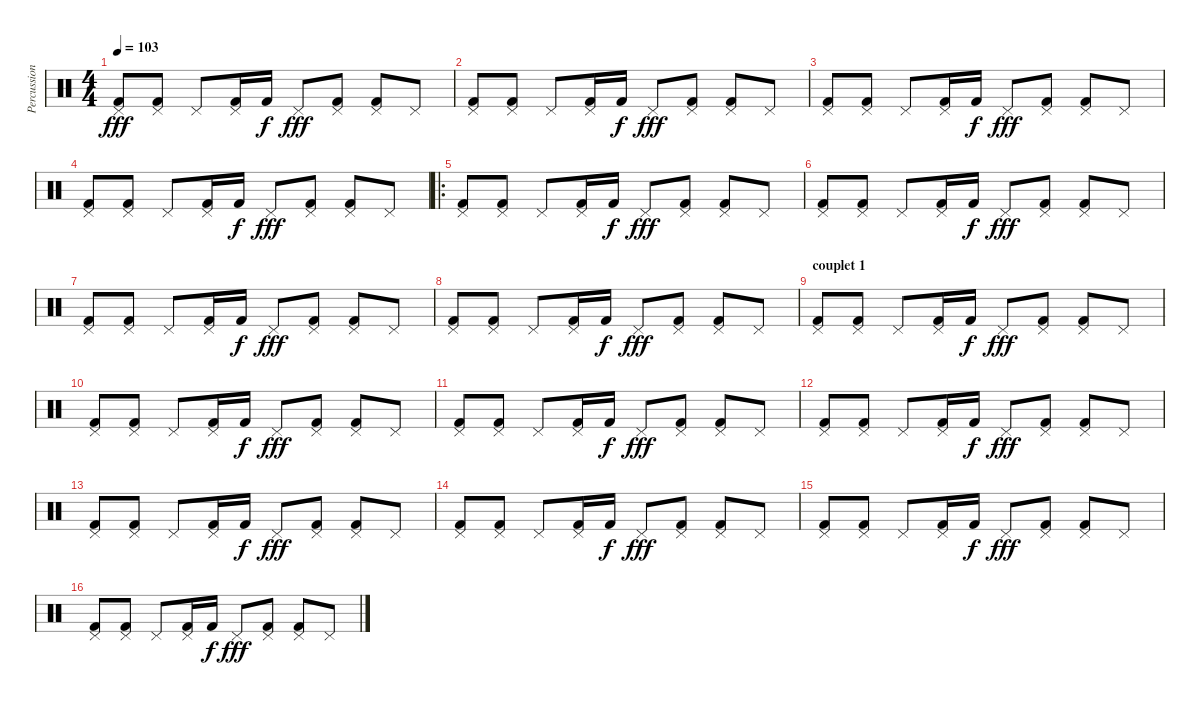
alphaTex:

\track ("Percussions" "Percussion") {instrument percussion}
\staff {score}
\articulation defaults
\ts (4 4)
\tempo 103
\clef neutral
\ks c
("Pedal Hi-Hat (hit)" "Kick (hit) 2").8{dy fff} ("Pedal Hi-Hat (hit)" "Kick (hit) 2").8 "Pedal Hi-Hat (hit)".8 ("Pedal Hi-Hat (hit)" "Kick (hit) 2").16 "Kick (hit) 2".16{dy f} "Pedal Hi-Hat (hit)".8{dy fff} ("Pedal Hi-Hat (hit)" "Kick (hit) 2").8 ("Pedal Hi-Hat (hit)" "Kick (hit) 2").8 "Pedal Hi-Hat (hit)".8 |
("Pedal Hi-Hat (hit)" "Kick (hit) 2").8 ("Pedal Hi-Hat (hit)" "Kick (hit) 2").8 "Pedal Hi-Hat (hit)".8 ("Pedal Hi-Hat (hit)" "Kick (hit) 2").16 "Kick (hit) 2".16{dy f} "Pedal Hi-Hat (hit)".8{dy fff} ("Pedal Hi-Hat (hit)" "Kick (hit) 2").8 ("Pedal Hi-Hat (hit)" "Kick (hit) 2").8 "Pedal Hi-Hat (hit)".8 |
("Pedal Hi-Hat (hit)" "Kick (hit) 2").8 ("Pedal Hi-Hat (hit)" "Kick (hit) 2").8 "Pedal Hi-Hat (hit)".8 ("Pedal Hi-Hat (hit)" "Kick (hit) 2").16 "Kick (hit) 2".16{dy f} "Pedal Hi-Hat (hit)".8{dy fff} ("Pedal Hi-Hat (hit)" "Kick (hit) 2").8 ("Pedal Hi-Hat (hit)" "Kick (hit) 2").8 "Pedal Hi-Hat (hit)".8 |
("Pedal Hi-Hat (hit)" "Kick (hit) 2").8 ("Pedal Hi-Hat (hit)" "Kick (hit) 2").8 "Pedal Hi-Hat (hit)".8 ("Pedal Hi-Hat (hit)" "Kick (hit) 2").16 "Kick (hit) 2".16{dy f} "Pedal Hi-Hat (hit)".8{dy fff} ("Pedal Hi-Hat (hit)" "Kick (hit) 2").8 ("Pedal Hi-Hat (hit)" "Kick (hit) 2").8 "Pedal Hi-Hat (hit)".8 |
\ro
("Pedal Hi-Hat (hit)" "Kick (hit) 2").8 ("Pedal Hi-Hat (hit)" "Kick (hit) 2").8 "Pedal Hi-Hat (hit)".8 ("Pedal Hi-Hat (hit)" "Kick (hit) 2").16 "Kick (hit) 2".16{dy f} "Pedal Hi-Hat (hit)".8{dy fff} ("Pedal Hi-Hat (hit)" "Kick (hit) 2").8 ("Pedal Hi-Hat (hit)" "Kick (hit) 2").8 "Pedal Hi-Hat (hit)".8 |
("Pedal Hi-Hat (hit)" "Kick (hit) 2").8 ("Pedal Hi-Hat (hit)" "Kick (hit) 2").8 "Pedal Hi-Hat (hit)".8 ("Pedal Hi-Hat (hit)" "Kick (hit) 2").16 "Kick (hit) 2".16{dy f} "Pedal Hi-Hat (hit)".8{dy fff} ("Pedal Hi-Hat (hit)" "Kick (hit) 2").8 ("Pedal Hi-Hat (hit)" "Kick (hit) 2").8 "Pedal Hi-Hat (hit)".8 |
("Pedal Hi-Hat (hit)" "Kick (hit) 2").8 ("Pedal Hi-Hat (hit)" "Kick (hit) 2").8 "Pedal Hi-Hat (hit)".8 ("Pedal Hi-Hat (hit)" "Kick (hit) 2").16 "Kick (hit) 2".16{dy f} "Pedal Hi-Hat (hit)".8{dy fff} ("Pedal Hi-Hat (hit)" "Kick (hit) 2").8 ("Pedal Hi-Hat (hit)" "Kick (hit) 2").8 "Pedal Hi-Hat (hit)".8 |
("Pedal Hi-Hat (hit)" "Kick (hit) 2").8 ("Pedal Hi-Hat (hit)" "Kick (hit) 2").8 "Pedal Hi-Hat (hit)".8 ("Pedal Hi-Hat (hit)" "Kick (hit) 2").16 "Kick (hit) 2".16{dy f} "Pedal Hi-Hat (hit)".8{dy fff} ("Pedal Hi-Hat (hit)" "Kick (hit) 2").8 ("Pedal Hi-Hat (hit)" "Kick (hit) 2").8 "Pedal Hi-Hat (hit)".8 |
\section ("" "couplet 1")
("Pedal Hi-Hat (hit)" "Kick (hit) 2").8 ("Pedal Hi-Hat (hit)" "Kick (hit) 2").8 "Pedal Hi-Hat (hit)".8 ("Pedal Hi-Hat (hit)" "Kick (hit) 2").16 "Kick (hit) 2".16{dy f} "Pedal Hi-Hat (hit)".8{dy fff} ("Pedal Hi-Hat (hit)" "Kick (hit) 2").8 ("Pedal Hi-Hat (hit)" "Kick (hit) 2").8 "Pedal Hi-Hat (hit)".8 |
("Pedal Hi-Hat (hit)" "Kick (hit) 2").8 ("Pedal Hi-Hat (hit)" "Kick (hit) 2").8 "Pedal Hi-Hat (hit)".8 ("Pedal Hi-Hat (hit)" "Kick (hit) 2").16 "Kick (hit) 2".16{dy f} "Pedal Hi-Hat (hit)".8{dy fff} ("Pedal Hi-Hat (hit)" "Kick (hit) 2").8 ("Pedal Hi-Hat (hit)" "Kick (hit) 2").8 "Pedal Hi-Hat (hit)".8 |
("Pedal Hi-Hat (hit)" "Kick (hit) 2").8 ("Pedal Hi-Hat (hit)" "Kick (hit) 2").8 "Pedal Hi-Hat (hit)".8 ("Pedal Hi-Hat (hit)" "Kick (hit) 2").16 "Kick (hit) 2".16{dy f} "Pedal Hi-Hat (hit)".8{dy fff} ("Pedal Hi-Hat (hit)" "Kick (hit) 2").8 ("Pedal Hi-Hat (hit)" "Kick (hit) 2").8 "Pedal Hi-Hat (hit)".8 |
("Pedal Hi-Hat (hit)" "Kick (hit) 2").8 ("Pedal Hi-Hat (hit)" "Kick (hit) 2").8 "Pedal Hi-Hat (hit)".8 ("Pedal Hi-Hat (hit)" "Kick (hit) 2").16 "Kick (hit) 2".16{dy f} "Pedal Hi-Hat (hit)".8{dy fff} ("Pedal Hi-Hat (hit)" "Kick (hit) 2").8 ("Pedal Hi-Hat (hit)" "Kick (hit) 2").8 "Pedal Hi-Hat (hit)".8 |
("Pedal Hi-Hat (hit)" "Kick (hit) 2").8 ("Pedal Hi-Hat (hit)" "Kick (hit) 2").8 "Pedal Hi-Hat (hit)".8 ("Pedal Hi-Hat (hit)" "Kick (hit) 2").16 "Kick (hit) 2".16{dy f} "Pedal Hi-Hat (hit)".8{dy fff} ("Pedal Hi-Hat (hit)" "Kick (hit) 2").8 ("Pedal Hi-Hat (hit)" "Kick (hit) 2").8 "Pedal Hi-Hat (hit)".8 |
("Pedal Hi-Hat (hit)" "Kick (hit) 2").8 ("Pedal Hi-Hat (hit)" "Kick (hit) 2").8 "Pedal Hi-Hat (hit)".8 ("Pedal Hi-Hat (hit)" "Kick (hit) 2").16 "Kick (hit) 2".16{dy f} "Pedal Hi-Hat (hit)".8{dy fff} ("Pedal Hi-Hat (hit)" "Kick (hit) 2").8 ("Pedal Hi-Hat (hit)" "Kick (hit) 2").8 "Pedal Hi-Hat (hit)".8 |
("Pedal Hi-Hat (hit)" "Kick (hit) 2").8 ("Pedal Hi-Hat (hit)" "Kick (hit) 2").8 "Pedal Hi-Hat (hit)".8 ("Pedal Hi-Hat (hit)" "Kick (hit) 2").16 "Kick (hit) 2".16{dy f} "Pedal Hi-Hat (hit)".8{dy fff} ("Pedal Hi-Hat (hit)" "Kick (hit) 2").8 ("Pedal Hi-Hat (hit)" "Kick (hit) 2").8 "Pedal Hi-Hat (hit)".8 |
("Pedal Hi-Hat (hit)" "Kick (hit) 2").8 ("Pedal Hi-Hat (hit)" "Kick (hit) 2").8 "Pedal Hi-Hat (hit)".8 ("Pedal Hi-Hat (hit)" "Kick (hit) 2").16 "Kick (hit) 2".16{dy f} "Pedal Hi-Hat (hit)".8{dy fff} ("Pedal Hi-Hat (hit)" "Kick (hit) 2").8 ("Pedal Hi-Hat (hit)" "Kick (hit) 2").8 "Pedal Hi-Hat (hit)".8
